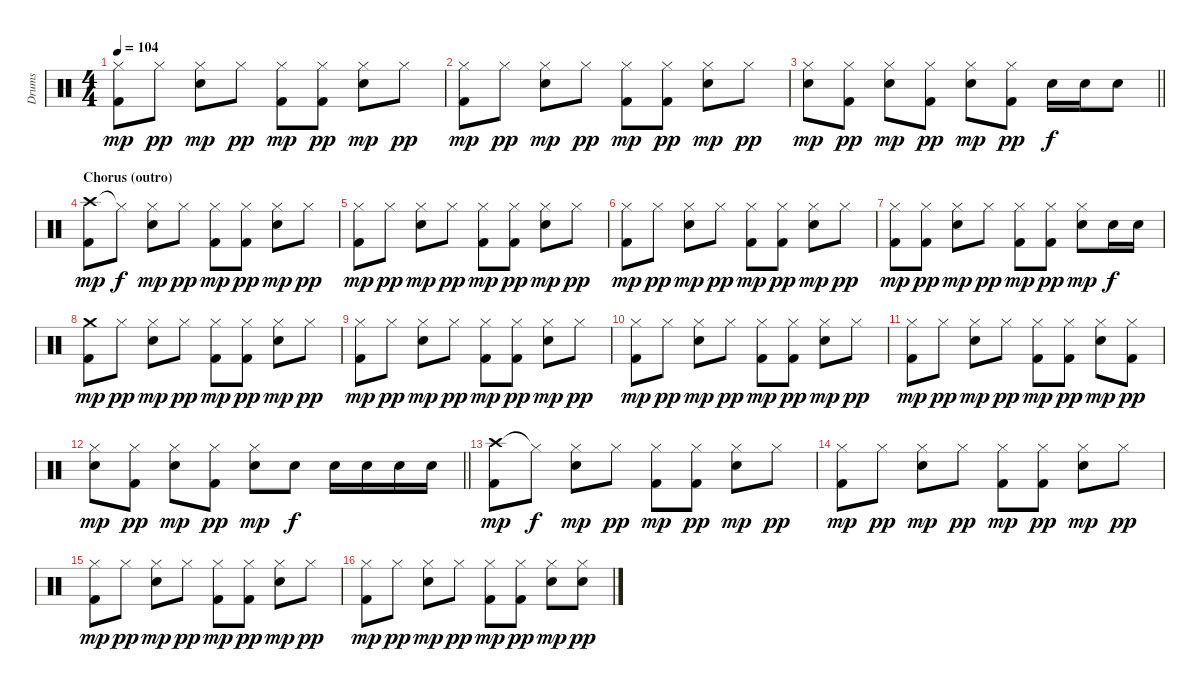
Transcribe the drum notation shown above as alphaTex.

\track ("Drums" "Drums") {instrument percussion}
\staff {score}
\articulation defaults
\ts (4 4)
\tempo 104
\clef neutral
\ks c
("Hi-Hat (closed)" "Kick (hit) 2").8{dy mp} "Hi-Hat (closed)".8{dy pp} ("Hi-Hat (closed)" "Electric Snare (hit)").8{dy mp} "Hi-Hat (closed)".8{dy pp} ("Hi-Hat (closed)" "Kick (hit) 2").8{dy mp} ("Hi-Hat (closed)" "Kick (hit) 2").8{dy pp} ("Hi-Hat (closed)" "Electric Snare (hit)").8{dy mp} "Hi-Hat (closed)".8{dy pp} |
("Hi-Hat (closed)" "Kick (hit) 2").8{dy mp} "Hi-Hat (closed)".8{dy pp} ("Hi-Hat (closed)" "Electric Snare (hit)").8{dy mp} "Hi-Hat (closed)".8{dy pp} ("Hi-Hat (closed)" "Kick (hit) 2").8{dy mp} ("Hi-Hat (closed)" "Kick (hit) 2").8{dy pp} ("Hi-Hat (closed)" "Electric Snare (hit)").8{dy mp} "Hi-Hat (closed)".8{dy pp} |
\barLineRight lightlight
("Hi-Hat (closed)" "Electric Snare (hit)").8{dy mp} ("Hi-Hat (closed)" "Kick (hit) 2").8{dy pp} ("Hi-Hat (closed)" "Electric Snare (hit)").8{dy mp} ("Hi-Hat (closed)" "Kick (hit) 2").8{dy pp} ("Hi-Hat (closed)" "Electric Snare (hit)").8{dy mp} ("Hi-Hat (closed)" "Kick (hit) 2").8{dy pp} "Electric Snare (hit)".16{dy f} "Electric Snare (hit)".16 "Electric Snare (hit)".8 |
\section ("" "Chorus (outro)")
("Crash high (hit)" "Kick (hit) 2").8{dy mp} "Hi-Hat (closed)"{t}.8{dy f} ("Hi-Hat (closed)" "Electric Snare (hit)").8{dy mp} "Hi-Hat (closed)".8{dy pp} ("Hi-Hat (closed)" "Kick (hit) 2").8{dy mp} ("Hi-Hat (closed)" "Kick (hit) 2").8{dy pp} ("Hi-Hat (closed)" "Electric Snare (hit)").8{dy mp} "Hi-Hat (closed)".8{dy pp} |
("Hi-Hat (closed)" "Kick (hit) 2").8{dy mp} "Hi-Hat (closed)".8{dy pp} ("Hi-Hat (closed)" "Electric Snare (hit)").8{dy mp} "Hi-Hat (closed)".8{dy pp} ("Hi-Hat (closed)" "Kick (hit) 2").8{dy mp} ("Hi-Hat (closed)" "Kick (hit) 2").8{dy pp} ("Hi-Hat (closed)" "Electric Snare (hit)").8{dy mp} "Hi-Hat (closed)".8{dy pp} |
("Hi-Hat (closed)" "Kick (hit) 2").8{dy mp} "Hi-Hat (closed)".8{dy pp} ("Hi-Hat (closed)" "Electric Snare (hit)").8{dy mp} "Hi-Hat (closed)".8{dy pp} ("Hi-Hat (closed)" "Kick (hit) 2").8{dy mp} ("Hi-Hat (closed)" "Kick (hit) 2").8{dy pp} ("Hi-Hat (closed)" "Electric Snare (hit)").8{dy mp} "Hi-Hat (closed)".8{dy pp} |
("Hi-Hat (closed)" "Kick (hit) 2").8{dy mp} ("Hi-Hat (closed)" "Kick (hit) 2").8{dy pp} ("Hi-Hat (closed)" "Electric Snare (hit)").8{dy mp} "Hi-Hat (closed)".8{dy pp} ("Hi-Hat (closed)" "Kick (hit) 2").8{dy mp} ("Hi-Hat (closed)" "Kick (hit) 2").8{dy pp} ("Hi-Hat (closed)" "Electric Snare (hit)").8{dy mp} "Electric Snare (hit)".16{dy f} "Electric Snare (hit)".16 |
("Crash medium (hit)" "Kick (hit) 2").8{dy mp} "Hi-Hat (closed)".8{dy pp} ("Hi-Hat (closed)" "Electric Snare (hit)").8{dy mp} "Hi-Hat (closed)".8{dy pp} ("Hi-Hat (closed)" "Kick (hit) 2").8{dy mp} ("Hi-Hat (closed)" "Kick (hit) 2").8{dy pp} ("Hi-Hat (closed)" "Electric Snare (hit)").8{dy mp} "Hi-Hat (closed)".8{dy pp} |
("Hi-Hat (closed)" "Kick (hit) 2").8{dy mp} "Hi-Hat (closed)".8{dy pp} ("Hi-Hat (closed)" "Electric Snare (hit)").8{dy mp} "Hi-Hat (closed)".8{dy pp} ("Hi-Hat (closed)" "Kick (hit) 2").8{dy mp} ("Hi-Hat (closed)" "Kick (hit) 2").8{dy pp} ("Hi-Hat (closed)" "Electric Snare (hit)").8{dy mp} "Hi-Hat (closed)".8{dy pp} |
("Hi-Hat (closed)" "Kick (hit) 2").8{dy mp} "Hi-Hat (closed)".8{dy pp} ("Hi-Hat (closed)" "Electric Snare (hit)").8{dy mp} "Hi-Hat (closed)".8{dy pp} ("Hi-Hat (closed)" "Kick (hit) 2").8{dy mp} ("Hi-Hat (closed)" "Kick (hit) 2").8{dy pp} ("Hi-Hat (closed)" "Electric Snare (hit)").8{dy mp} "Hi-Hat (closed)".8{dy pp} |
("Hi-Hat (closed)" "Kick (hit) 2").8{dy mp} "Hi-Hat (closed)".8{dy pp} ("Hi-Hat (closed)" "Electric Snare (hit)").8{dy mp} "Hi-Hat (closed)".8{dy pp} ("Hi-Hat (closed)" "Kick (hit) 2").8{dy mp} ("Hi-Hat (closed)" "Kick (hit) 2").8{dy pp} ("Hi-Hat (closed)" "Electric Snare (hit)").8{dy mp} ("Hi-Hat (closed)" "Kick (hit) 2").8{dy pp} |
\barLineRight lightlight
("Hi-Hat (closed)" "Electric Snare (hit)").8{dy mp} ("Hi-Hat (closed)" "Kick (hit) 2").8{dy pp} ("Hi-Hat (closed)" "Electric Snare (hit)").8{dy mp} ("Hi-Hat (closed)" "Kick (hit) 2").8{dy pp} ("Hi-Hat (closed)" "Electric Snare (hit)").8{dy mp} "Electric Snare (hit)".8{dy f} "Electric Snare (hit)".16 "Electric Snare (hit)".16 "Electric Snare (hit)".16 "Electric Snare (hit)".16 |
("Crash high (hit)" "Kick (hit) 2").8{dy mp} "Hi-Hat (closed)"{t}.8{dy f} ("Hi-Hat (closed)" "Electric Snare (hit)").8{dy mp} "Hi-Hat (closed)".8{dy pp} ("Hi-Hat (closed)" "Kick (hit) 2").8{dy mp} ("Hi-Hat (closed)" "Kick (hit) 2").8{dy pp} ("Hi-Hat (closed)" "Electric Snare (hit)").8{dy mp} "Hi-Hat (closed)".8{dy pp} |
("Hi-Hat (closed)" "Kick (hit) 2").8{dy mp} "Hi-Hat (closed)".8{dy pp} ("Hi-Hat (closed)" "Electric Snare (hit)").8{dy mp} "Hi-Hat (closed)".8{dy pp} ("Hi-Hat (closed)" "Kick (hit) 2").8{dy mp} ("Hi-Hat (closed)" "Kick (hit) 2").8{dy pp} ("Hi-Hat (closed)" "Electric Snare (hit)").8{dy mp} "Hi-Hat (closed)".8{dy pp} |
("Hi-Hat (closed)" "Kick (hit) 2").8{dy mp} "Hi-Hat (closed)".8{dy pp} ("Hi-Hat (closed)" "Electric Snare (hit)").8{dy mp} "Hi-Hat (closed)".8{dy pp} ("Hi-Hat (closed)" "Kick (hit) 2").8{dy mp} ("Hi-Hat (closed)" "Kick (hit) 2").8{dy pp} ("Hi-Hat (closed)" "Electric Snare (hit)").8{dy mp} "Hi-Hat (closed)".8{dy pp} |
("Hi-Hat (closed)" "Kick (hit) 2").8{dy mp} "Hi-Hat (closed)".8{dy pp} ("Hi-Hat (closed)" "Electric Snare (hit)").8{dy mp} "Hi-Hat (closed)".8{dy pp} ("Hi-Hat (closed)" "Kick (hit) 2").8{dy mp} ("Hi-Hat (closed)" "Kick (hit) 2").8{dy pp} ("Hi-Hat (closed)" "Electric Snare (hit)").8{dy mp} ("Hi-Hat (closed)" "Electric Snare (hit)").8{dy pp}
